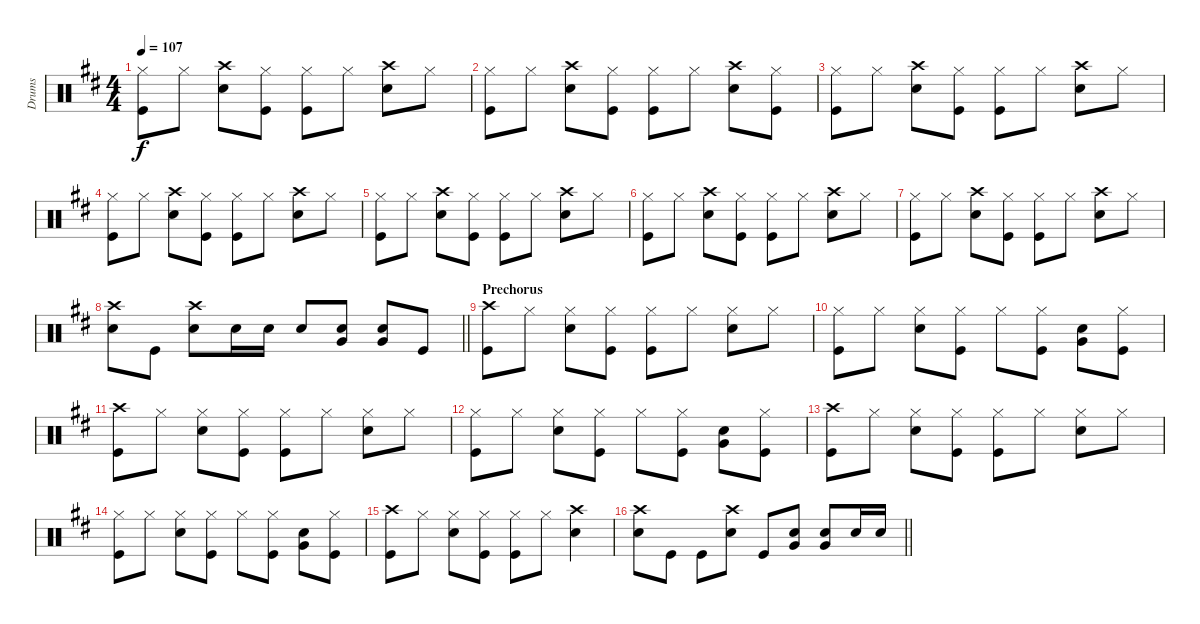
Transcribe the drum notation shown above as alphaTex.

\track ("Drums" "Drums") {instrument percussion}
\staff {score}
\articulation defaults
\ts (4 4)
\tempo 107
\clef neutral
\ks d
("Hi-Hat (closed)" "Kick (hit)").8{dy f} "Hi-Hat (closed)".8 ("Crash high (hit)" "Snare (hit) 2").8 ("Hi-Hat (closed)" "Kick (hit)").8 ("Hi-Hat (closed)" "Kick (hit)").8 "Hi-Hat (closed)".8 ("Crash high (hit)" "Snare (hit) 2").8 "Hi-Hat (closed)".8 |
("Hi-Hat (closed)" "Kick (hit)").8 "Hi-Hat (closed)".8 ("Crash high (hit)" "Snare (hit) 2").8 ("Hi-Hat (closed)" "Kick (hit)").8 ("Hi-Hat (closed)" "Kick (hit)").8 "Hi-Hat (closed)".8 ("Crash high (hit)" "Snare (hit) 2").8 ("Hi-Hat (closed)" "Kick (hit)").8 |
("Hi-Hat (closed)" "Kick (hit)").8 "Hi-Hat (closed)".8 ("Crash high (hit)" "Snare (hit) 2").8 ("Hi-Hat (closed)" "Kick (hit)").8 ("Hi-Hat (closed)" "Kick (hit)").8 "Hi-Hat (closed)".8 ("Crash high (hit)" "Snare (hit) 2").8 "Hi-Hat (closed)".8 |
("Hi-Hat (closed)" "Kick (hit)").8 "Hi-Hat (closed)".8 ("Crash high (hit)" "Snare (hit) 2").8 ("Hi-Hat (closed)" "Kick (hit)").8 ("Hi-Hat (closed)" "Kick (hit)").8 "Hi-Hat (closed)".8 ("Crash high (hit)" "Snare (hit) 2").8 "Hi-Hat (closed)".8 |
("Hi-Hat (closed)" "Kick (hit)").8 "Hi-Hat (closed)".8 ("Crash high (hit)" "Snare (hit) 2").8 ("Hi-Hat (closed)" "Kick (hit)").8 ("Hi-Hat (closed)" "Kick (hit)").8 "Hi-Hat (closed)".8 ("Crash high (hit)" "Snare (hit) 2").8 "Hi-Hat (closed)".8 |
("Hi-Hat (closed)" "Kick (hit)").8 "Hi-Hat (closed)".8 ("Crash high (hit)" "Snare (hit) 2").8 ("Hi-Hat (closed)" "Kick (hit)").8 ("Hi-Hat (closed)" "Kick (hit)").8 "Hi-Hat (closed)".8 ("Crash high (hit)" "Snare (hit) 2").8 "Hi-Hat (closed)".8 |
("Hi-Hat (closed)" "Kick (hit)").8 "Hi-Hat (closed)".8 ("Crash high (hit)" "Snare (hit) 2").8 ("Hi-Hat (closed)" "Kick (hit)").8 ("Hi-Hat (closed)" "Kick (hit)").8 "Hi-Hat (closed)".8 ("Crash high (hit)" "Snare (hit) 2").8 "Hi-Hat (closed)".8 |
\barLineRight lightlight
("Crash high (hit)" "Snare (hit) 2").8 "Kick (hit)".8 ("Crash high (hit)" "Snare (hit) 2").8 "Snare (hit) 2".16 "Snare (hit) 2".16 "Snare (hit) 2".8 ("Snare (hit) 2" "Very Low Tom (hit)").8 ("Snare (hit) 2" "Very Low Tom (hit)").8 "Kick (hit)".8 |
\section ("" "Prechorus")
("Crash high (hit)" "Kick (hit)").8 "Hi-Hat (closed)".8 ("Hi-Hat (closed)" "Snare (hit) 2").8 ("Hi-Hat (closed)" "Kick (hit)").8 ("Hi-Hat (closed)" "Kick (hit)").8 "Hi-Hat (closed)".8 ("Hi-Hat (closed)" "Snare (hit) 2").8 "Hi-Hat (closed)".8 |
("Hi-Hat (closed)" "Kick (hit)").8 "Hi-Hat (closed)".8 ("Hi-Hat (closed)" "Snare (hit) 2").8 ("Hi-Hat (closed)" "Kick (hit)").8 "Hi-Hat (closed)".8 ("Hi-Hat (closed)" "Kick (hit)").8 ("Snare (hit) 2" "Very Low Tom (hit)").8 ("Hi-Hat (closed)" "Kick (hit)").8 |
("Crash high (hit)" "Kick (hit)").8 "Hi-Hat (closed)".8 ("Hi-Hat (closed)" "Snare (hit) 2").8 ("Hi-Hat (closed)" "Kick (hit)").8 ("Hi-Hat (closed)" "Kick (hit)").8 "Hi-Hat (closed)".8 ("Hi-Hat (closed)" "Snare (hit) 2").8 "Hi-Hat (closed)".8 |
("Hi-Hat (closed)" "Kick (hit)").8 "Hi-Hat (closed)".8 ("Hi-Hat (closed)" "Snare (hit) 2").8 ("Hi-Hat (closed)" "Kick (hit)").8 "Hi-Hat (closed)".8 ("Hi-Hat (closed)" "Kick (hit)").8 ("Snare (hit) 2" "Very Low Tom (hit)").8 ("Hi-Hat (closed)" "Kick (hit)").8 |
("Crash high (hit)" "Kick (hit)").8 "Hi-Hat (closed)".8 ("Hi-Hat (closed)" "Snare (hit) 2").8 ("Hi-Hat (closed)" "Kick (hit)").8 ("Hi-Hat (closed)" "Kick (hit)").8 "Hi-Hat (closed)".8 ("Hi-Hat (closed)" "Snare (hit) 2").8 "Hi-Hat (closed)".8 |
("Hi-Hat (closed)" "Kick (hit)").8 "Hi-Hat (closed)".8 ("Hi-Hat (closed)" "Snare (hit) 2").8 ("Hi-Hat (closed)" "Kick (hit)").8 "Hi-Hat (closed)".8 ("Hi-Hat (closed)" "Kick (hit)").8 ("Snare (hit) 2" "Very Low Tom (hit)").8 ("Hi-Hat (closed)" "Kick (hit)").8 |
("Crash high (hit)" "Kick (hit)").8 "Hi-Hat (closed)".8 ("Hi-Hat (closed)" "Snare (hit) 2").8 ("Hi-Hat (closed)" "Kick (hit)").8 ("Hi-Hat (closed)" "Kick (hit)").8 "Hi-Hat (closed)".8 ("Crash high (hit)" "Snare (hit) 2").4 |
\barLineRight lightlight
("Crash high (hit)" "Snare (hit) 2").8 "Kick (hit)".8 "Kick (hit)".8 ("Crash high (hit)" "Snare (hit) 2").8 "Kick (hit)".8 ("Snare (hit) 2" "Very Low Tom (hit)").8 ("Snare (hit) 2" "Very Low Tom (hit)").8 "Snare (hit) 2".16 "Snare (hit) 2".16
